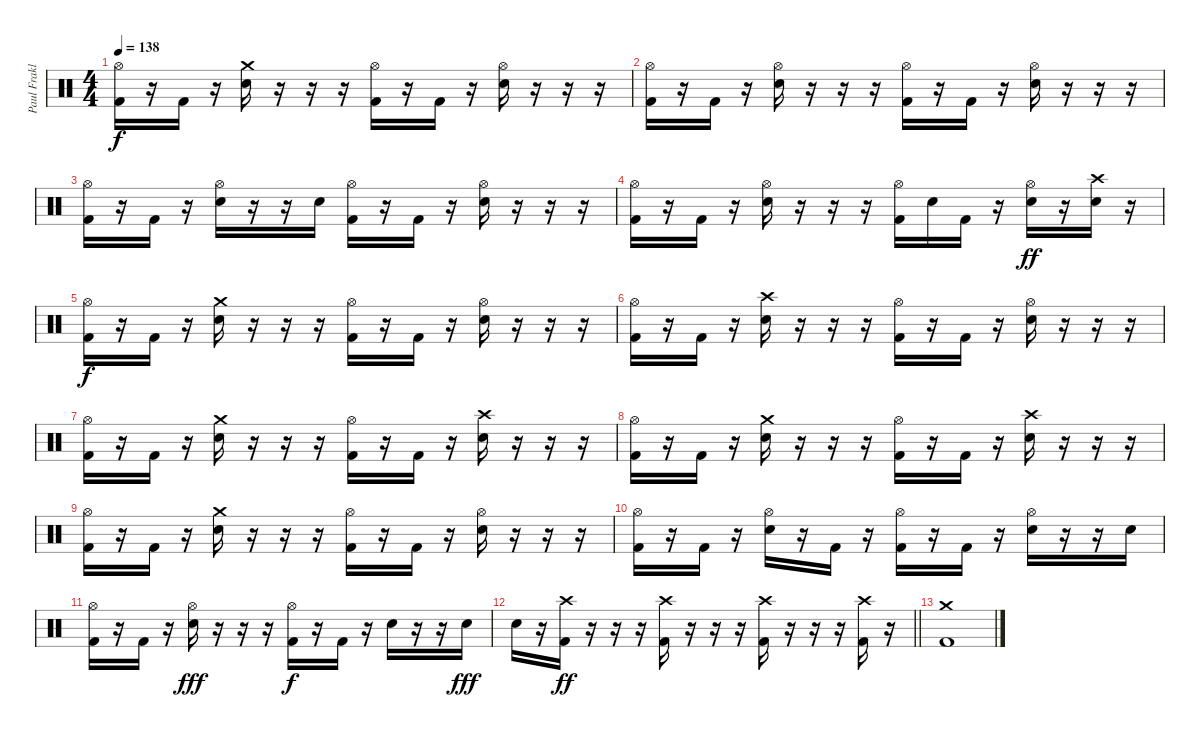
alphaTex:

\track ("Paul Fraklin Percusion" "Paul Frakl") {instrument percussion}
\staff {score}
\articulation defaults
\ts (4 4)
\tempo 138
\clef neutral
\ks c
("Hi-Hat (open)" "Kick (hit) 2").16{dy f} r.16 "Kick (hit) 2".16 r.16 ("Crash medium (hit)" "Electric Snare (hit)").16 r.16 r.16 r.16 ("Hi-Hat (open)" "Kick (hit) 2").16 r.16 "Kick (hit) 2".16 r.16 ("Hi-Hat (open)" "Electric Snare (hit)").16 r.16 r.16 r.16 |
("Hi-Hat (open)" "Kick (hit) 2").16 r.16 "Kick (hit) 2".16 r.16 ("Hi-Hat (open)" "Electric Snare (hit)").16 r.16 r.16 r.16 ("Hi-Hat (open)" "Kick (hit) 2").16 r.16 "Kick (hit) 2".16 r.16 ("Hi-Hat (open)" "Electric Snare (hit)").16 r.16 r.16 r.16 |
("Hi-Hat (open)" "Kick (hit) 2").16 r.16 "Kick (hit) 2".16 r.16 ("Hi-Hat (open)" "Electric Snare (hit)").16 r.16 r.16 "Electric Snare (hit)".16 ("Hi-Hat (open)" "Kick (hit) 2").16 r.16 "Kick (hit) 2".16 r.16 ("Hi-Hat (open)" "Electric Snare (hit)").16 r.16 r.16 r.16 |
("Hi-Hat (open)" "Kick (hit) 2").16 r.16 "Kick (hit) 2".16 r.16 ("Hi-Hat (open)" "Electric Snare (hit)").16 r.16 r.16 r.16 ("Hi-Hat (open)" "Kick (hit) 2").16 "Electric Snare (hit)".16 "Kick (hit) 2".16 r.16 ("Hi-Hat (open)" "Electric Snare (hit)").16{dy ff} r.16 ("Crash high (hit)" "Electric Snare (hit)").16 r.16 |
("Hi-Hat (open)" "Kick (hit) 2").16{dy f} r.16 "Kick (hit) 2".16 r.16 ("Crash medium (hit)" "Electric Snare (hit)").16 r.16 r.16 r.16 ("Hi-Hat (open)" "Kick (hit) 2").16 r.16 "Kick (hit) 2".16 r.16 ("Hi-Hat (open)" "Electric Snare (hit)").16 r.16 r.16 r.16 |
("Hi-Hat (open)" "Kick (hit) 2").16 r.16 "Kick (hit) 2".16 r.16 ("Crash high (hit)" "Electric Snare (hit)").16 r.16 r.16 r.16 ("Hi-Hat (open)" "Kick (hit) 2").16 r.16 "Kick (hit) 2".16 r.16 ("Hi-Hat (open)" "Electric Snare (hit)").16 r.16 r.16 r.16 |
("Hi-Hat (open)" "Kick (hit) 2").16 r.16 "Kick (hit) 2".16 r.16 ("Crash medium (hit)" "Electric Snare (hit)").16 r.16 r.16 r.16 ("Hi-Hat (open)" "Kick (hit) 2").16 r.16 "Kick (hit) 2".16 r.16 ("Crash high (hit)" "Electric Snare (hit)").16 r.16 r.16 r.16 |
("Hi-Hat (open)" "Kick (hit) 2").16 r.16 "Kick (hit) 2".16 r.16 ("Crash medium (hit)" "Electric Snare (hit)").16 r.16 r.16 r.16 ("Hi-Hat (open)" "Kick (hit) 2").16 r.16 "Kick (hit) 2".16 r.16 ("Crash high (hit)" "Electric Snare (hit)").16 r.16 r.16 r.16 |
("Hi-Hat (open)" "Kick (hit) 2").16 r.16 "Kick (hit) 2".16 r.16 ("Crash medium (hit)" "Electric Snare (hit)").16 r.16 r.16 r.16 ("Hi-Hat (open)" "Kick (hit) 2").16 r.16 "Kick (hit) 2".16 r.16 ("Hi-Hat (open)" "Electric Snare (hit)").16 r.16 r.16 r.16 |
("Hi-Hat (open)" "Kick (hit) 2").16 r.16 "Kick (hit) 2".16 r.16 ("Hi-Hat (open)" "Electric Snare (hit)").16 r.16 "Kick (hit) 2".16 r.16 ("Hi-Hat (open)" "Kick (hit) 2").16 r.16 "Kick (hit) 2".16 r.16 ("Hi-Hat (open)" "Electric Snare (hit)").16 r.16 r.16 "Electric Snare (hit)".16 |
("Hi-Hat (open)" "Kick (hit) 2").16 r.16 "Kick (hit) 2".16 r.16 ("Hi-Hat (open)" "Electric Snare (hit)").16{dy fff} r.16 r.16 r.16 ("Hi-Hat (open)" "Kick (hit) 2").16{dy f} r.16 "Kick (hit) 2".16 r.16 "Electric Snare (hit)".16 r.16 r.16 "Electric Snare (hit)".16{dy fff} |
\barLineRight lightlight "Electric Snare (hit)".16
r.16 ("Crash high (hit)" "Kick (hit) 2").16{dy ff} r.16 r.16{volume 1} r.16 ("Crash high (hit)" "Kick (hit) 2").16{volume 13} r.16 r.16{volume 0} r.16 ("Crash high (hit)" "Kick (hit) 2").16{volume 13} r.16 r.16{volume 0} r.16 ("Crash high (hit)" "Kick (hit) 2").16{volume 13} r.16 |
("Crash medium (hit)" "Kick (hit) 2").1
